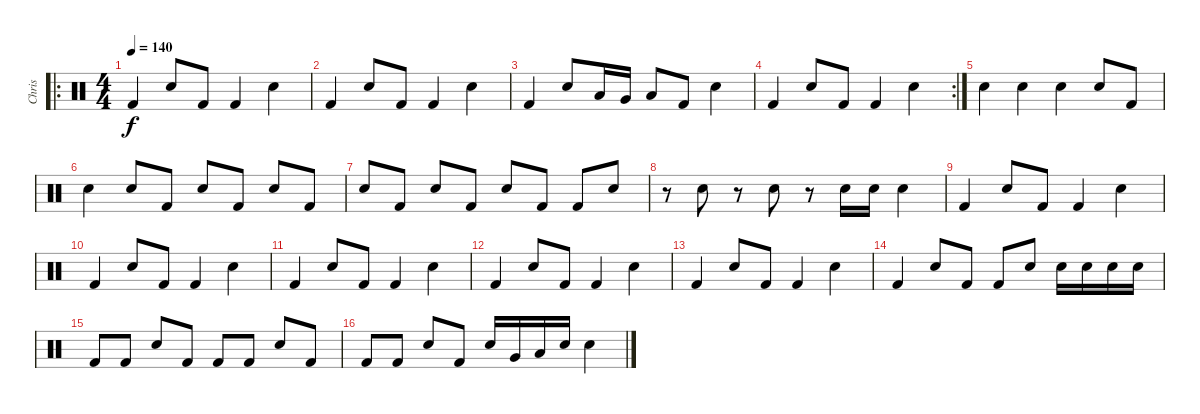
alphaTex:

\track ("Chris" "Chris") {instrument percussion}
\staff {score}
\articulation defaults
\ro
\ts (4 4)
\tempo 140
\clef neutral
\ks c "Kick (hit) 2".4{dy f} "Snare (hit) 2".8 "Kick (hit) 2".8 "Kick (hit) 2".4 "Snare (hit) 2".4
|
"Kick (hit) 2".4 "Snare (hit) 2".8 "Kick (hit) 2".8 "Kick (hit) 2".4 "Snare (hit) 2".4 |
"Kick (hit) 2".4 "Snare (hit) 2".8 "Low Tom (hit)".16 "Very Low Tom (hit)".16 "Low Floor Tom (hit)".8 "Kick (hit) 2".8 "Snare (hit) 2".4 |
\rc 2 "Kick (hit) 2".4 "Snare (hit) 2".8 "Kick (hit) 2".8 "Kick (hit) 2".4 "Snare (hit) 2".4
|
"Snare (hit) 2".4 "Snare (hit) 2".4 "Snare (hit) 2".4 "Snare (hit) 2".8 "Kick (hit) 2".8 |
"Snare (hit) 2".4 "Snare (hit) 2".8 "Kick (hit) 2".8 "Snare (hit) 2".8 "Kick (hit) 2".8 "Snare (hit) 2".8 "Kick (hit) 2".8 |
"Snare (hit) 2".8 "Kick (hit) 2".8 "Snare (hit) 2".8 "Kick (hit) 2".8 "Snare (hit) 2".8 "Kick (hit) 2".8 "Kick (hit) 2".8 "Snare (hit) 2".8 |
r.8 "Snare (hit) 2".8 r.8 "Snare (hit) 2".8 r.8 "Snare (hit) 2".16 "Snare (hit) 2".16 "Snare (hit) 2".4 |
"Kick (hit) 2".4 "Snare (hit) 2".8 "Kick (hit) 2".8 "Kick (hit) 2".4 "Snare (hit) 2".4 |
"Kick (hit) 2".4 "Snare (hit) 2".8 "Kick (hit) 2".8 "Kick (hit) 2".4 "Snare (hit) 2".4 |
"Kick (hit) 2".4 "Snare (hit) 2".8 "Kick (hit) 2".8 "Kick (hit) 2".4 "Snare (hit) 2".4 |
"Kick (hit) 2".4 "Snare (hit) 2".8 "Kick (hit) 2".8 "Kick (hit) 2".4 "Snare (hit) 2".4 |
"Kick (hit) 2".4 "Snare (hit) 2".8 "Kick (hit) 2".8 "Kick (hit) 2".4 "Snare (hit) 2".4 |
"Kick (hit) 2".4 "Snare (hit) 2".8 "Kick (hit) 2".8 "Kick (hit) 2".8 "Snare (hit) 2".8 "Snare (hit) 2".16 "Snare (hit) 2".16 "Snare (hit) 2".16 "Snare (hit) 2".16 |
"Kick (hit) 2".8 "Kick (hit) 2".8 "Snare (hit) 2".8 "Kick (hit) 2".8 "Kick (hit) 2".8 "Kick (hit) 2".8 "Snare (hit) 2".8 "Kick (hit) 2".8 |
"Kick (hit) 2".8 "Kick (hit) 2".8 "Snare (hit) 2".8 "Kick (hit) 2".8 "Snare (hit) 2".16 "Very Low Tom (hit)".16 "Low Floor Tom (hit)".16 "Snare (hit) 2".16 "Snare (hit) 2".4
